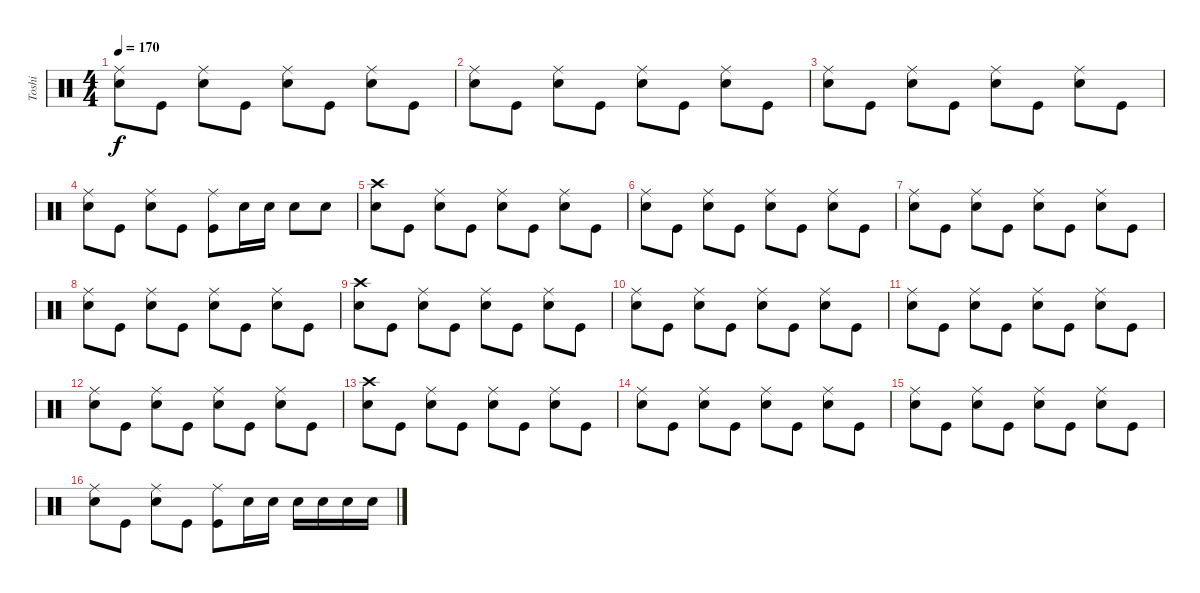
\track ("Toshi" "Toshi") {instrument percussion}
\staff {score}
\articulation defaults
\ts (4 4)
\tempo 170
\clef neutral
\ks c
("Ride (middle)" "Snare (hit) 2").8{dy f} "Kick (hit)".8 ("Ride (middle)" "Snare (hit) 2").8 "Kick (hit)".8 ("Ride (middle)" "Snare (hit) 2").8 "Kick (hit)".8 ("Ride (middle)" "Snare (hit) 2").8 "Kick (hit)".8 |
("Ride (middle)" "Snare (hit) 2").8 "Kick (hit)".8 ("Ride (middle)" "Snare (hit) 2").8 "Kick (hit)".8 ("Ride (middle)" "Snare (hit) 2").8 "Kick (hit)".8 ("Ride (middle)" "Snare (hit) 2").8 "Kick (hit)".8 |
("Ride (middle)" "Snare (hit) 2").8 "Kick (hit)".8 ("Ride (middle)" "Snare (hit) 2").8 "Kick (hit)".8 ("Ride (middle)" "Snare (hit) 2").8 "Kick (hit)".8 ("Ride (middle)" "Snare (hit) 2").8 "Kick (hit)".8 |
("Ride (middle)" "Snare (hit) 2").8 "Kick (hit)".8 ("Ride (middle)" "Snare (hit) 2").8 "Kick (hit)".8 ("Ride (middle)" "Kick (hit)").8 "Snare (hit) 2".16 "Snare (hit) 2".16 "Snare (hit) 2".8 "Snare (hit) 2".8 |
("Crash high (hit)" "Snare (hit) 2").8 "Kick (hit)".8 ("Ride (middle)" "Snare (hit) 2").8 "Kick (hit)".8 ("Ride (middle)" "Snare (hit) 2").8 "Kick (hit)".8 ("Ride (middle)" "Snare (hit) 2").8 "Kick (hit)".8 |
("Ride (middle)" "Snare (hit) 2").8 "Kick (hit)".8 ("Ride (middle)" "Snare (hit) 2").8 "Kick (hit)".8 ("Ride (middle)" "Snare (hit) 2").8 "Kick (hit)".8 ("Ride (middle)" "Snare (hit) 2").8 "Kick (hit)".8 |
("Ride (middle)" "Snare (hit) 2").8 "Kick (hit)".8 ("Ride (middle)" "Snare (hit) 2").8 "Kick (hit)".8 ("Ride (middle)" "Snare (hit) 2").8 "Kick (hit)".8 ("Ride (middle)" "Snare (hit) 2").8 "Kick (hit)".8 |
("Ride (middle)" "Snare (hit) 2").8 "Kick (hit)".8 ("Ride (middle)" "Snare (hit) 2").8 "Kick (hit)".8 ("Ride (middle)" "Snare (hit) 2").8 "Kick (hit)".8 ("Ride (middle)" "Snare (hit) 2").8 "Kick (hit)".8 |
("Crash high (hit)" "Snare (hit) 2").8 "Kick (hit)".8 ("Ride (middle)" "Snare (hit) 2").8 "Kick (hit)".8 ("Ride (middle)" "Snare (hit) 2").8 "Kick (hit)".8 ("Ride (middle)" "Snare (hit) 2").8 "Kick (hit)".8 |
("Ride (middle)" "Snare (hit) 2").8 "Kick (hit)".8 ("Ride (middle)" "Snare (hit) 2").8 "Kick (hit)".8 ("Ride (middle)" "Snare (hit) 2").8 "Kick (hit)".8 ("Ride (middle)" "Snare (hit) 2").8 "Kick (hit)".8 |
("Ride (middle)" "Snare (hit) 2").8 "Kick (hit)".8 ("Ride (middle)" "Snare (hit) 2").8 "Kick (hit)".8 ("Ride (middle)" "Snare (hit) 2").8 "Kick (hit)".8 ("Ride (middle)" "Snare (hit) 2").8 "Kick (hit)".8 |
("Ride (middle)" "Snare (hit) 2").8 "Kick (hit)".8 ("Ride (middle)" "Snare (hit) 2").8 "Kick (hit)".8 ("Ride (middle)" "Snare (hit) 2").8 "Kick (hit)".8 ("Ride (middle)" "Snare (hit) 2").8 "Kick (hit)".8 |
("Crash high (hit)" "Snare (hit) 2").8 "Kick (hit)".8 ("Ride (middle)" "Snare (hit) 2").8 "Kick (hit)".8 ("Ride (middle)" "Snare (hit) 2").8 "Kick (hit)".8 ("Ride (middle)" "Snare (hit) 2").8 "Kick (hit)".8 |
("Ride (middle)" "Snare (hit) 2").8 "Kick (hit)".8 ("Ride (middle)" "Snare (hit) 2").8 "Kick (hit)".8 ("Ride (middle)" "Snare (hit) 2").8 "Kick (hit)".8 ("Ride (middle)" "Snare (hit) 2").8 "Kick (hit)".8 |
("Ride (middle)" "Snare (hit) 2").8 "Kick (hit)".8 ("Ride (middle)" "Snare (hit) 2").8 "Kick (hit)".8 ("Ride (middle)" "Snare (hit) 2").8 "Kick (hit)".8 ("Ride (middle)" "Snare (hit) 2").8 "Kick (hit)".8 |
("Ride (middle)" "Snare (hit) 2").8 "Kick (hit)".8 ("Ride (middle)" "Snare (hit) 2").8 "Kick (hit)".8 ("Ride (middle)" "Kick (hit)").8 "Snare (hit) 2".16 "Snare (hit) 2".16 "Snare (hit) 2".16 "Snare (hit) 2".16 "Snare (hit) 2".16 "Snare (hit) 2".16
